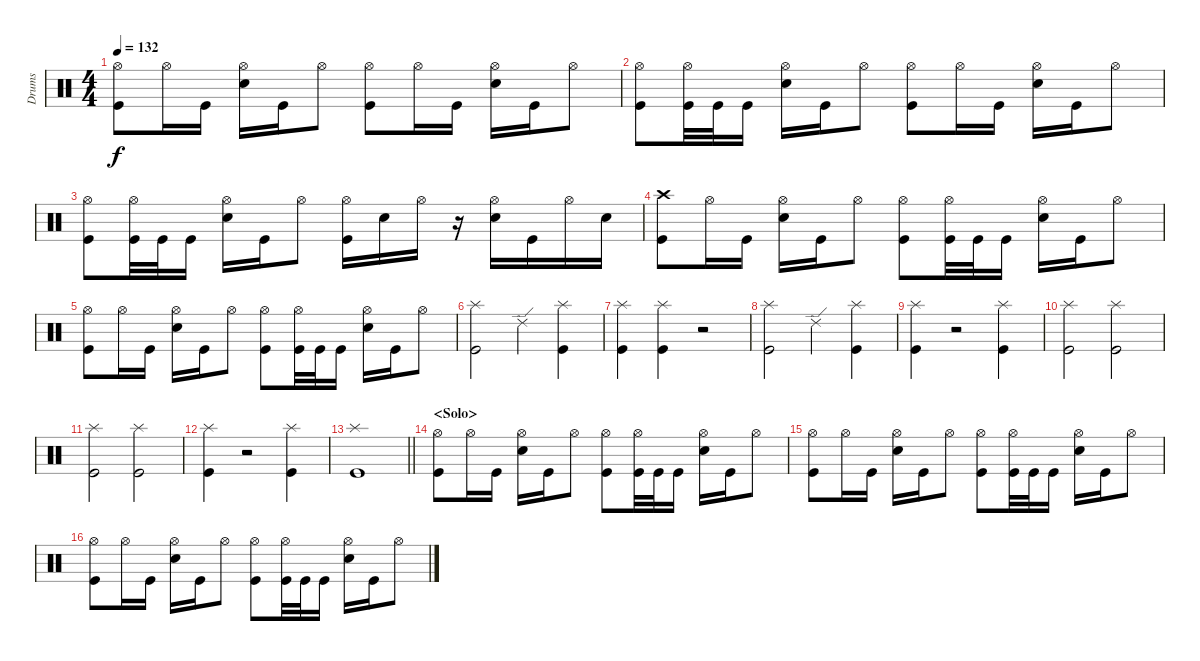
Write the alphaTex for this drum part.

\track ("Drums" "Drums") {instrument percussion}
\staff {score}
\articulation defaults
\ts (4 4)
\tempo 132
\clef neutral
\ks c
("Hi-Hat (open)" "Kick (hit)").8{dy f} "Hi-Hat (open)".16 "Kick (hit)".16 ("Hi-Hat (open)" "Snare (hit) 2").16 "Kick (hit)".16 "Hi-Hat (open)".8 ("Hi-Hat (open)" "Kick (hit)").8 "Hi-Hat (open)".16 "Kick (hit)".16 ("Hi-Hat (open)" "Snare (hit) 2").16 "Kick (hit)".16 "Hi-Hat (open)".8 |
("Hi-Hat (open)" "Kick (hit)").8 ("Hi-Hat (open)" "Kick (hit)").32 "Kick (hit)".32 "Kick (hit)".16 ("Hi-Hat (open)" "Snare (hit) 2").16 "Kick (hit)".16 "Hi-Hat (open)".8 ("Hi-Hat (open)" "Kick (hit)").8 "Hi-Hat (open)".16 "Kick (hit)".16 ("Hi-Hat (open)" "Snare (hit) 2").16 "Kick (hit)".16 "Hi-Hat (open)".8 |
("Hi-Hat (open)" "Kick (hit)").8 ("Hi-Hat (open)" "Kick (hit)").32 "Kick (hit)".32 "Kick (hit)".16 ("Hi-Hat (open)" "Snare (hit) 2").16 "Kick (hit)".16 "Hi-Hat (open)".8 ("Hi-Hat (open)" "Kick (hit)").16 "Snare (hit) 2".16 "Hi-Hat (open)".16 r.16 ("Hi-Hat (open)" "Snare (hit) 2").16 "Kick (hit)".16 "Hi-Hat (open)".16 "Snare (hit) 2".16 |
("Crash high (hit)" "Kick (hit)").8 "Hi-Hat (open)".16 "Kick (hit)".16 ("Hi-Hat (open)" "Snare (hit) 2").16 "Kick (hit)".16 "Hi-Hat (open)".8 ("Hi-Hat (open)" "Kick (hit)").8 ("Hi-Hat (open)" "Kick (hit)").32 "Kick (hit)".32 "Kick (hit)".16 ("Hi-Hat (open)" "Snare (hit) 2").16 "Kick (hit)".16 "Hi-Hat (open)".8 |
("Hi-Hat (open)" "Kick (hit)").8 "Hi-Hat (open)".16 "Kick (hit)".16 ("Hi-Hat (open)" "Snare (hit) 2").16 "Kick (hit)".16 "Hi-Hat (open)".8 ("Hi-Hat (open)" "Kick (hit)").8 ("Hi-Hat (open)" "Kick (hit)").32 "Kick (hit)".32 "Kick (hit)".16 ("Hi-Hat (open)" "Snare (hit) 2").16 "Kick (hit)".16 "Hi-Hat (open)".8 |
("Splash (hit)" "Kick (hit)").2 "Ride (edge) 2".4 ("Splash (hit)" "Kick (hit)").4 |
("Splash (hit)" "Kick (hit)").4 ("Splash (hit)" "Kick (hit)").4 r.2 |
("Splash (hit)" "Kick (hit)").2 "Ride (edge) 2".4 ("Splash (hit)" "Kick (hit)").4 |
("Splash (hit)" "Kick (hit)").4 r.2 ("Splash (hit)" "Kick (hit)").4 |
("Splash (hit)" "Kick (hit)").2 ("Splash (hit)" "Kick (hit)").2 |
("Splash (hit)" "Kick (hit)").2 ("Splash (hit)" "Kick (hit)").2 |
("Splash (hit)" "Kick (hit)").4 r.2 ("Splash (hit)" "Kick (hit)").4 |
\barLineRight lightlight
("Splash (hit)" "Kick (hit)").1 |
\section ("" "<Solo>")
("Hi-Hat (open)" "Kick (hit)").8 "Hi-Hat (open)".16 "Kick (hit)".16 ("Hi-Hat (open)" "Snare (hit) 2").16 "Kick (hit)".16 "Hi-Hat (open)".8 ("Hi-Hat (open)" "Kick (hit)").8 ("Hi-Hat (open)" "Kick (hit)").32 "Kick (hit)".32 "Kick (hit)".16 ("Hi-Hat (open)" "Snare (hit) 2").16 "Kick (hit)".16 "Hi-Hat (open)".8 |
("Hi-Hat (open)" "Kick (hit)").8 "Hi-Hat (open)".16 "Kick (hit)".16 ("Hi-Hat (open)" "Snare (hit) 2").16 "Kick (hit)".16 "Hi-Hat (open)".8 ("Hi-Hat (open)" "Kick (hit)").8 ("Hi-Hat (open)" "Kick (hit)").32 "Kick (hit)".32 "Kick (hit)".16 ("Hi-Hat (open)" "Snare (hit) 2").16 "Kick (hit)".16 "Hi-Hat (open)".8 |
("Hi-Hat (open)" "Kick (hit)").8 "Hi-Hat (open)".16 "Kick (hit)".16 ("Hi-Hat (open)" "Snare (hit) 2").16 "Kick (hit)".16 "Hi-Hat (open)".8 ("Hi-Hat (open)" "Kick (hit)").8 ("Hi-Hat (open)" "Kick (hit)").32 "Kick (hit)".32 "Kick (hit)".16 ("Hi-Hat (open)" "Snare (hit) 2").16 "Kick (hit)".16 "Hi-Hat (open)".8
